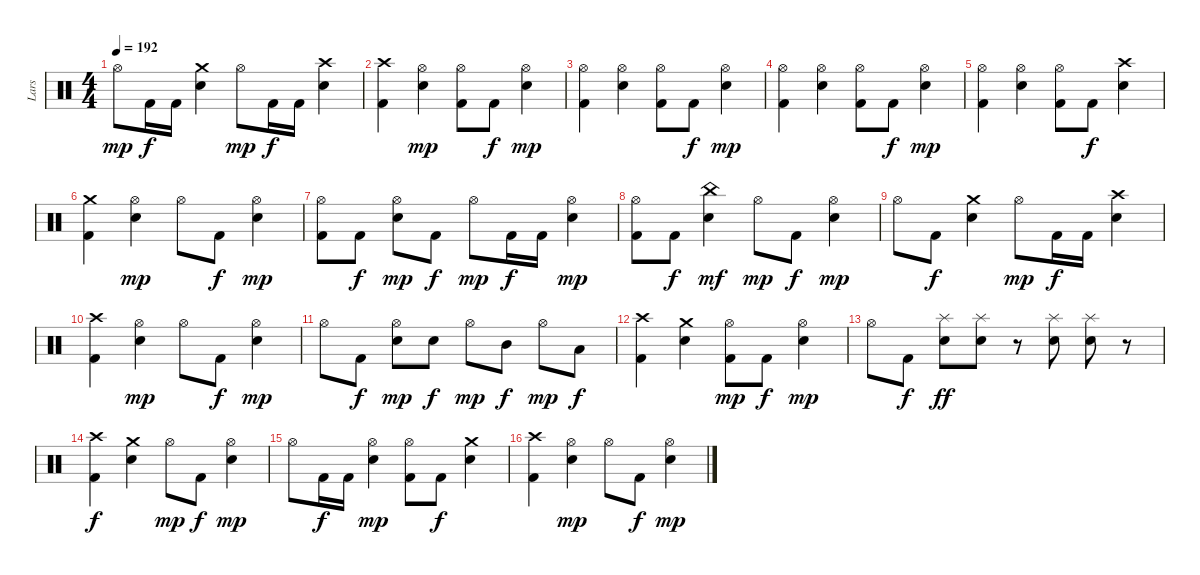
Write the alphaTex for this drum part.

\track ("Lars" "Lars") {instrument percussion}
\staff {score}
\articulation defaults
\ts (4 4)
\tempo 192
\clef neutral
\ks c "Hi-Hat (open)".8{dy mp} "Kick (hit) 2".16{dy f} "Kick (hit) 2".16
("Crash medium (hit)" "Snare (hit) 2").4 "Hi-Hat (open)".8{dy mp} "Kick (hit) 2".16{dy f} "Kick (hit) 2".16 ("Crash high (hit)" "Snare (hit) 2").4 |
("Crash high (hit)" "Kick (hit) 2").4 ("Hi-Hat (open)" "Snare (hit) 2").4{dy mp} ("Hi-Hat (open)" "Kick (hit) 2").8 "Kick (hit) 2".8{dy f} ("Hi-Hat (open)" "Snare (hit) 2").4{dy mp} |
("Hi-Hat (open)" "Kick (hit) 2").4 ("Hi-Hat (open)" "Snare (hit) 2").4 ("Hi-Hat (open)" "Kick (hit) 2").8 "Kick (hit) 2".8{dy f} ("Hi-Hat (open)" "Snare (hit) 2").4{dy mp} |
("Hi-Hat (open)" "Kick (hit) 2").4 ("Hi-Hat (open)" "Snare (hit) 2").4 ("Hi-Hat (open)" "Kick (hit) 2").8 "Kick (hit) 2".8{dy f} ("Hi-Hat (open)" "Snare (hit) 2").4{dy mp} |
("Hi-Hat (open)" "Kick (hit) 2").4 ("Hi-Hat (open)" "Snare (hit) 2").4 ("Hi-Hat (open)" "Kick (hit) 2").8 "Kick (hit) 2".8{dy f} ("Crash high (hit)" "Snare (hit) 2").4 |
("Crash medium (hit)" "Kick (hit) 2").4 ("Hi-Hat (open)" "Snare (hit) 2").4{dy mp} "Hi-Hat (open)".8 "Kick (hit) 2".8{dy f} ("Hi-Hat (open)" "Snare (hit) 2").4{dy mp} |
("Hi-Hat (open)" "Kick (hit) 2").8 "Kick (hit) 2".8{dy f} ("Hi-Hat (open)" "Snare (hit) 2").8{dy mp} "Kick (hit) 2".8{dy f} "Hi-Hat (open)".8{dy mp} "Kick (hit) 2".16{dy f} "Kick (hit) 2".16 ("Hi-Hat (open)" "Snare (hit) 2").4{dy mp} |
("Hi-Hat (open)" "Kick (hit) 2").8 "Kick (hit) 2".8{dy f} ("China (hit)" "Snare (hit) 2").4{dy mf} "Hi-Hat (open)".8{dy mp} "Kick (hit) 2".8{dy f} ("Hi-Hat (open)" "Snare (hit) 2").4{dy mp} |
"Hi-Hat (open)".8 "Kick (hit) 2".8{dy f} ("Crash medium (hit)" "Snare (hit) 2").4 "Hi-Hat (open)".8{dy mp} "Kick (hit) 2".16{dy f} "Kick (hit) 2".16 ("Crash high (hit)" "Snare (hit) 2").4 |
("Crash high (hit)" "Kick (hit) 2").4 ("Hi-Hat (open)" "Snare (hit) 2").4{dy mp} "Hi-Hat (open)".8 "Kick (hit) 2".8{dy f} ("Hi-Hat (open)" "Snare (hit) 2").4{dy mp} |
"Hi-Hat (open)".8 "Kick (hit) 2".8{dy f} ("Hi-Hat (open)" "Snare (hit) 2").8{dy mp} "Snare (hit) 2".8{dy f} "Hi-Hat (open)".8{dy mp} "Mid Tom (hit)".8{dy f} "Hi-Hat (open)".8{dy mp} "Low Tom (hit)".8{dy f} |
("Crash high (hit)" "Kick (hit) 2").4 ("Crash medium (hit)" "Snare (hit) 2").4 ("Hi-Hat (open)" "Kick (hit) 2").8{dy mp} "Kick (hit) 2".8{dy f} ("Hi-Hat (open)" "Snare (hit) 2").4{dy mp} |
"Hi-Hat (open)".8 "Kick (hit) 2".8{dy f} ("Splash (hit)" "Snare (hit) 2").8{dy ff} ("Splash (hit)" "Snare (hit) 2").8 r.8 ("Splash (hit)" "Snare (hit) 2").8 ("Splash (hit)" "Snare (hit) 2").8 r.8 |
("Crash high (hit)" "Kick (hit) 2").4{dy f} ("Crash medium (hit)" "Snare (hit) 2").4 "Hi-Hat (open)".8{dy mp} "Kick (hit) 2".8{dy f} ("Hi-Hat (open)" "Snare (hit) 2").4{dy mp} |
"Hi-Hat (open)".8 "Kick (hit) 2".16{dy f} "Kick (hit) 2".16 ("Hi-Hat (open)" "Snare (hit) 2").4{dy mp} ("Hi-Hat (open)" "Kick (hit) 2").8 "Kick (hit) 2".8{dy f} ("Crash medium (hit)" "Snare (hit) 2").4 |
("Crash high (hit)" "Kick (hit) 2").4 ("Hi-Hat (open)" "Snare (hit) 2").4{dy mp} "Hi-Hat (open)".8 "Kick (hit) 2".8{dy f} ("Hi-Hat (open)" "Snare (hit) 2").4{dy mp}
